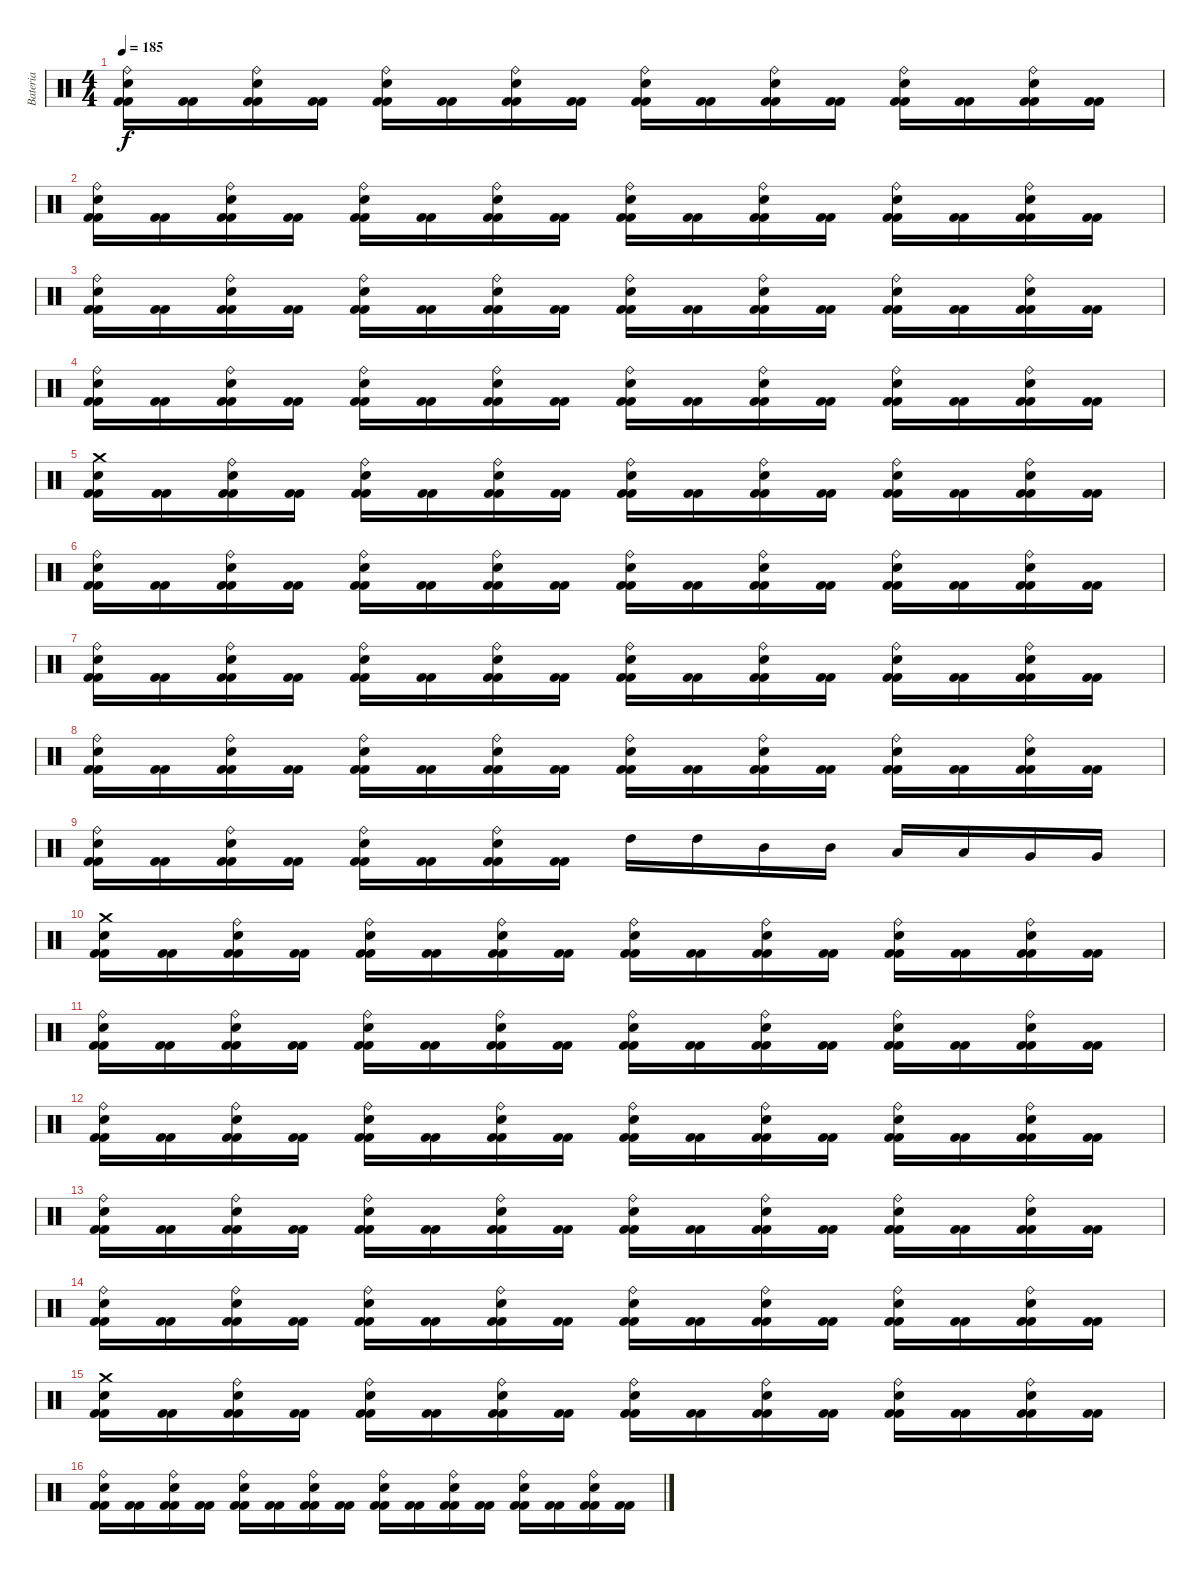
\track ("Bateria" "Bateria") {instrument percussion}
\staff {score}
\articulation defaults
\ts (4 4)
\tempo 185
\clef neutral
\ks c
("Kick (hit) 2" "Kick (hit) 2" "Electric Snare (hit)" "Ride (bell)").16{dy f} ("Kick (hit) 2" "Kick (hit) 2").16 ("Kick (hit) 2" "Kick (hit) 2" "Ride (bell)" "Electric Snare (hit)").16 ("Kick (hit) 2" "Kick (hit) 2").16 ("Kick (hit) 2" "Kick (hit) 2" "Electric Snare (hit)" "Ride (bell)").16 ("Kick (hit) 2" "Kick (hit) 2").16 ("Kick (hit) 2" "Kick (hit) 2" "Ride (bell)" "Electric Snare (hit)").16 ("Kick (hit) 2" "Kick (hit) 2").16 ("Kick (hit) 2" "Kick (hit) 2" "Electric Snare (hit)" "Ride (bell)").16 ("Kick (hit) 2" "Kick (hit) 2").16 ("Kick (hit) 2" "Kick (hit) 2" "Ride (bell)" "Electric Snare (hit)").16 ("Kick (hit) 2" "Kick (hit) 2").16 ("Kick (hit) 2" "Kick (hit) 2" "Electric Snare (hit)" "Ride (bell)").16 ("Kick (hit) 2" "Kick (hit) 2").16 ("Kick (hit) 2" "Kick (hit) 2" "Ride (bell)" "Electric Snare (hit)").16 ("Kick (hit) 2" "Kick (hit) 2").16 |
("Kick (hit) 2" "Kick (hit) 2" "Electric Snare (hit)" "Ride (bell)").16 ("Kick (hit) 2" "Kick (hit) 2").16 ("Kick (hit) 2" "Kick (hit) 2" "Ride (bell)" "Electric Snare (hit)").16 ("Kick (hit) 2" "Kick (hit) 2").16 ("Kick (hit) 2" "Kick (hit) 2" "Electric Snare (hit)" "Ride (bell)").16 ("Kick (hit) 2" "Kick (hit) 2").16 ("Kick (hit) 2" "Kick (hit) 2" "Ride (bell)" "Electric Snare (hit)").16 ("Kick (hit) 2" "Kick (hit) 2").16 ("Kick (hit) 2" "Kick (hit) 2" "Electric Snare (hit)" "Ride (bell)").16 ("Kick (hit) 2" "Kick (hit) 2").16 ("Kick (hit) 2" "Kick (hit) 2" "Ride (bell)" "Electric Snare (hit)").16 ("Kick (hit) 2" "Kick (hit) 2").16 ("Kick (hit) 2" "Kick (hit) 2" "Electric Snare (hit)" "Ride (bell)").16 ("Kick (hit) 2" "Kick (hit) 2").16 ("Kick (hit) 2" "Kick (hit) 2" "Ride (bell)" "Electric Snare (hit)").16 ("Kick (hit) 2" "Kick (hit) 2").16 |
("Kick (hit) 2" "Kick (hit) 2" "Electric Snare (hit)" "Ride (bell)").16 ("Kick (hit) 2" "Kick (hit) 2").16 ("Kick (hit) 2" "Kick (hit) 2" "Ride (bell)" "Electric Snare (hit)").16 ("Kick (hit) 2" "Kick (hit) 2").16 ("Kick (hit) 2" "Kick (hit) 2" "Electric Snare (hit)" "Ride (bell)").16 ("Kick (hit) 2" "Kick (hit) 2").16 ("Kick (hit) 2" "Kick (hit) 2" "Ride (bell)" "Electric Snare (hit)").16 ("Kick (hit) 2" "Kick (hit) 2").16 ("Kick (hit) 2" "Kick (hit) 2" "Electric Snare (hit)" "Ride (bell)").16 ("Kick (hit) 2" "Kick (hit) 2").16 ("Kick (hit) 2" "Kick (hit) 2" "Ride (bell)" "Electric Snare (hit)").16 ("Kick (hit) 2" "Kick (hit) 2").16 ("Kick (hit) 2" "Kick (hit) 2" "Electric Snare (hit)" "Ride (bell)").16 ("Kick (hit) 2" "Kick (hit) 2").16 ("Kick (hit) 2" "Kick (hit) 2" "Ride (bell)" "Electric Snare (hit)").16 ("Kick (hit) 2" "Kick (hit) 2").16 |
("Kick (hit) 2" "Kick (hit) 2" "Electric Snare (hit)" "Ride (bell)").16 ("Kick (hit) 2" "Kick (hit) 2").16 ("Kick (hit) 2" "Kick (hit) 2" "Ride (bell)" "Electric Snare (hit)").16 ("Kick (hit) 2" "Kick (hit) 2").16 ("Kick (hit) 2" "Kick (hit) 2" "Electric Snare (hit)" "Ride (bell)").16 ("Kick (hit) 2" "Kick (hit) 2").16 ("Kick (hit) 2" "Kick (hit) 2" "Ride (bell)" "Electric Snare (hit)").16 ("Kick (hit) 2" "Kick (hit) 2").16 ("Kick (hit) 2" "Kick (hit) 2" "Electric Snare (hit)" "Ride (bell)").16 ("Kick (hit) 2" "Kick (hit) 2").16 ("Kick (hit) 2" "Kick (hit) 2" "Ride (bell)" "Electric Snare (hit)").16 ("Kick (hit) 2" "Kick (hit) 2").16 ("Kick (hit) 2" "Kick (hit) 2" "Electric Snare (hit)" "Ride (bell)").16 ("Kick (hit) 2" "Kick (hit) 2").16 ("Kick (hit) 2" "Kick (hit) 2" "Ride (bell)" "Electric Snare (hit)").16 ("Kick (hit) 2" "Kick (hit) 2").16 |
("Kick (hit) 2" "Kick (hit) 2" "Electric Snare (hit)" "Crash medium (hit)").16 ("Kick (hit) 2" "Kick (hit) 2").16 ("Kick (hit) 2" "Kick (hit) 2" "Ride (bell)" "Electric Snare (hit)").16 ("Kick (hit) 2" "Kick (hit) 2").16 ("Kick (hit) 2" "Kick (hit) 2" "Electric Snare (hit)" "Ride (bell)").16 ("Kick (hit) 2" "Kick (hit) 2").16 ("Kick (hit) 2" "Kick (hit) 2" "Ride (bell)" "Electric Snare (hit)").16 ("Kick (hit) 2" "Kick (hit) 2").16 ("Kick (hit) 2" "Kick (hit) 2" "Electric Snare (hit)" "Ride (bell)").16 ("Kick (hit) 2" "Kick (hit) 2").16 ("Kick (hit) 2" "Kick (hit) 2" "Ride (bell)" "Electric Snare (hit)").16 ("Kick (hit) 2" "Kick (hit) 2").16 ("Kick (hit) 2" "Kick (hit) 2" "Electric Snare (hit)" "Ride (bell)").16 ("Kick (hit) 2" "Kick (hit) 2").16 ("Kick (hit) 2" "Kick (hit) 2" "Ride (bell)" "Electric Snare (hit)").16 ("Kick (hit) 2" "Kick (hit) 2").16 |
("Kick (hit) 2" "Kick (hit) 2" "Electric Snare (hit)" "Ride (bell)").16 ("Kick (hit) 2" "Kick (hit) 2").16 ("Kick (hit) 2" "Kick (hit) 2" "Ride (bell)" "Electric Snare (hit)").16 ("Kick (hit) 2" "Kick (hit) 2").16 ("Kick (hit) 2" "Kick (hit) 2" "Electric Snare (hit)" "Ride (bell)").16 ("Kick (hit) 2" "Kick (hit) 2").16 ("Kick (hit) 2" "Kick (hit) 2" "Ride (bell)" "Electric Snare (hit)").16 ("Kick (hit) 2" "Kick (hit) 2").16 ("Kick (hit) 2" "Kick (hit) 2" "Electric Snare (hit)" "Ride (bell)").16 ("Kick (hit) 2" "Kick (hit) 2").16 ("Kick (hit) 2" "Kick (hit) 2" "Ride (bell)" "Electric Snare (hit)").16 ("Kick (hit) 2" "Kick (hit) 2").16 ("Kick (hit) 2" "Kick (hit) 2" "Electric Snare (hit)" "Ride (bell)").16 ("Kick (hit) 2" "Kick (hit) 2").16 ("Kick (hit) 2" "Kick (hit) 2" "Ride (bell)" "Electric Snare (hit)").16 ("Kick (hit) 2" "Kick (hit) 2").16 |
("Kick (hit) 2" "Kick (hit) 2" "Electric Snare (hit)" "Ride (bell)").16 ("Kick (hit) 2" "Kick (hit) 2").16 ("Kick (hit) 2" "Kick (hit) 2" "Ride (bell)" "Electric Snare (hit)").16 ("Kick (hit) 2" "Kick (hit) 2").16 ("Kick (hit) 2" "Kick (hit) 2" "Electric Snare (hit)" "Ride (bell)").16 ("Kick (hit) 2" "Kick (hit) 2").16 ("Kick (hit) 2" "Kick (hit) 2" "Ride (bell)" "Electric Snare (hit)").16 ("Kick (hit) 2" "Kick (hit) 2").16 ("Kick (hit) 2" "Kick (hit) 2" "Electric Snare (hit)" "Ride (bell)").16 ("Kick (hit) 2" "Kick (hit) 2").16 ("Kick (hit) 2" "Kick (hit) 2" "Ride (bell)" "Electric Snare (hit)").16 ("Kick (hit) 2" "Kick (hit) 2").16 ("Kick (hit) 2" "Kick (hit) 2" "Electric Snare (hit)" "Ride (bell)").16 ("Kick (hit) 2" "Kick (hit) 2").16 ("Kick (hit) 2" "Kick (hit) 2" "Ride (bell)" "Electric Snare (hit)").16 ("Kick (hit) 2" "Kick (hit) 2").16 |
("Kick (hit) 2" "Kick (hit) 2" "Electric Snare (hit)" "Ride (bell)").16 ("Kick (hit) 2" "Kick (hit) 2").16 ("Kick (hit) 2" "Kick (hit) 2" "Ride (bell)" "Electric Snare (hit)").16 ("Kick (hit) 2" "Kick (hit) 2").16 ("Kick (hit) 2" "Kick (hit) 2" "Electric Snare (hit)" "Ride (bell)").16 ("Kick (hit) 2" "Kick (hit) 2").16 ("Kick (hit) 2" "Kick (hit) 2" "Ride (bell)" "Electric Snare (hit)").16 ("Kick (hit) 2" "Kick (hit) 2").16 ("Kick (hit) 2" "Kick (hit) 2" "Electric Snare (hit)" "Ride (bell)").16 ("Kick (hit) 2" "Kick (hit) 2").16 ("Kick (hit) 2" "Kick (hit) 2" "Ride (bell)" "Electric Snare (hit)").16 ("Kick (hit) 2" "Kick (hit) 2").16 ("Kick (hit) 2" "Kick (hit) 2" "Electric Snare (hit)" "Ride (bell)").16 ("Kick (hit) 2" "Kick (hit) 2").16 ("Kick (hit) 2" "Kick (hit) 2" "Ride (bell)" "Electric Snare (hit)").16 ("Kick (hit) 2" "Kick (hit) 2").16 |
("Kick (hit) 2" "Kick (hit) 2" "Electric Snare (hit)" "Ride (bell)").16 ("Kick (hit) 2" "Kick (hit) 2").16 ("Kick (hit) 2" "Kick (hit) 2" "Ride (bell)" "Electric Snare (hit)").16 ("Kick (hit) 2" "Kick (hit) 2").16 ("Kick (hit) 2" "Kick (hit) 2" "Electric Snare (hit)" "Ride (bell)").16 ("Kick (hit) 2" "Kick (hit) 2").16 ("Kick (hit) 2" "Kick (hit) 2" "Ride (bell)" "Electric Snare (hit)").16 ("Kick (hit) 2" "Kick (hit) 2").16 "High Tom (hit)".16 "High Tom (hit)".16 "Mid Tom (hit)".16 "Mid Tom (hit)".16 "Low Tom (hit)".16 "Low Tom (hit)".16 "Very Low Tom (hit)".16 "Very Low Tom (hit)".16 |
("Kick (hit) 2" "Kick (hit) 2" "Electric Snare (hit)" "Crash medium (hit)").16 ("Kick (hit) 2" "Kick (hit) 2").16 ("Kick (hit) 2" "Kick (hit) 2" "Ride (bell)" "Electric Snare (hit)").16 ("Kick (hit) 2" "Kick (hit) 2").16 ("Kick (hit) 2" "Kick (hit) 2" "Electric Snare (hit)" "Ride (bell)").16 ("Kick (hit) 2" "Kick (hit) 2").16 ("Kick (hit) 2" "Kick (hit) 2" "Ride (bell)" "Electric Snare (hit)").16 ("Kick (hit) 2" "Kick (hit) 2").16 ("Kick (hit) 2" "Kick (hit) 2" "Electric Snare (hit)" "Ride (bell)").16 ("Kick (hit) 2" "Kick (hit) 2").16 ("Kick (hit) 2" "Kick (hit) 2" "Ride (bell)" "Electric Snare (hit)").16 ("Kick (hit) 2" "Kick (hit) 2").16 ("Kick (hit) 2" "Kick (hit) 2" "Electric Snare (hit)" "Ride (bell)").16 ("Kick (hit) 2" "Kick (hit) 2").16 ("Kick (hit) 2" "Kick (hit) 2" "Ride (bell)" "Electric Snare (hit)").16 ("Kick (hit) 2" "Kick (hit) 2").16 |
("Kick (hit) 2" "Kick (hit) 2" "Electric Snare (hit)" "Ride (bell)").16 ("Kick (hit) 2" "Kick (hit) 2").16 ("Kick (hit) 2" "Kick (hit) 2" "Ride (bell)" "Electric Snare (hit)").16 ("Kick (hit) 2" "Kick (hit) 2").16 ("Kick (hit) 2" "Kick (hit) 2" "Electric Snare (hit)" "Ride (bell)").16 ("Kick (hit) 2" "Kick (hit) 2").16 ("Kick (hit) 2" "Kick (hit) 2" "Ride (bell)" "Electric Snare (hit)").16 ("Kick (hit) 2" "Kick (hit) 2").16 ("Kick (hit) 2" "Kick (hit) 2" "Electric Snare (hit)" "Ride (bell)").16 ("Kick (hit) 2" "Kick (hit) 2").16 ("Kick (hit) 2" "Kick (hit) 2" "Ride (bell)" "Electric Snare (hit)").16 ("Kick (hit) 2" "Kick (hit) 2").16 ("Kick (hit) 2" "Kick (hit) 2" "Electric Snare (hit)" "Ride (bell)").16 ("Kick (hit) 2" "Kick (hit) 2").16 ("Kick (hit) 2" "Kick (hit) 2" "Ride (bell)" "Electric Snare (hit)").16 ("Kick (hit) 2" "Kick (hit) 2").16 |
("Kick (hit) 2" "Kick (hit) 2" "Electric Snare (hit)" "Ride (bell)").16 ("Kick (hit) 2" "Kick (hit) 2").16 ("Kick (hit) 2" "Kick (hit) 2" "Ride (bell)" "Electric Snare (hit)").16 ("Kick (hit) 2" "Kick (hit) 2").16 ("Kick (hit) 2" "Kick (hit) 2" "Electric Snare (hit)" "Ride (bell)").16 ("Kick (hit) 2" "Kick (hit) 2").16 ("Kick (hit) 2" "Kick (hit) 2" "Ride (bell)" "Electric Snare (hit)").16 ("Kick (hit) 2" "Kick (hit) 2").16 ("Kick (hit) 2" "Kick (hit) 2" "Electric Snare (hit)" "Ride (bell)").16 ("Kick (hit) 2" "Kick (hit) 2").16 ("Kick (hit) 2" "Kick (hit) 2" "Ride (bell)" "Electric Snare (hit)").16 ("Kick (hit) 2" "Kick (hit) 2").16 ("Kick (hit) 2" "Kick (hit) 2" "Electric Snare (hit)" "Ride (bell)").16 ("Kick (hit) 2" "Kick (hit) 2").16 ("Kick (hit) 2" "Kick (hit) 2" "Ride (bell)" "Electric Snare (hit)").16 ("Kick (hit) 2" "Kick (hit) 2").16 |
("Kick (hit) 2" "Kick (hit) 2" "Electric Snare (hit)" "Ride (bell)").16 ("Kick (hit) 2" "Kick (hit) 2").16 ("Kick (hit) 2" "Kick (hit) 2" "Ride (bell)" "Electric Snare (hit)").16 ("Kick (hit) 2" "Kick (hit) 2").16 ("Kick (hit) 2" "Kick (hit) 2" "Electric Snare (hit)" "Ride (bell)").16 ("Kick (hit) 2" "Kick (hit) 2").16 ("Kick (hit) 2" "Kick (hit) 2" "Ride (bell)" "Electric Snare (hit)").16 ("Kick (hit) 2" "Kick (hit) 2").16 ("Kick (hit) 2" "Kick (hit) 2" "Electric Snare (hit)" "Ride (bell)").16 ("Kick (hit) 2" "Kick (hit) 2").16 ("Kick (hit) 2" "Kick (hit) 2" "Ride (bell)" "Electric Snare (hit)").16 ("Kick (hit) 2" "Kick (hit) 2").16 ("Kick (hit) 2" "Kick (hit) 2" "Electric Snare (hit)" "Ride (bell)").16 ("Kick (hit) 2" "Kick (hit) 2").16 ("Kick (hit) 2" "Kick (hit) 2" "Ride (bell)" "Electric Snare (hit)").16 ("Kick (hit) 2" "Kick (hit) 2").16 |
("Kick (hit) 2" "Kick (hit) 2" "Electric Snare (hit)" "Ride (bell)").16 ("Kick (hit) 2" "Kick (hit) 2").16 ("Kick (hit) 2" "Kick (hit) 2" "Ride (bell)" "Electric Snare (hit)").16 ("Kick (hit) 2" "Kick (hit) 2").16 ("Kick (hit) 2" "Kick (hit) 2" "Electric Snare (hit)" "Ride (bell)").16 ("Kick (hit) 2" "Kick (hit) 2").16 ("Kick (hit) 2" "Kick (hit) 2" "Ride (bell)" "Electric Snare (hit)").16 ("Kick (hit) 2" "Kick (hit) 2").16 ("Kick (hit) 2" "Kick (hit) 2" "Electric Snare (hit)" "Ride (bell)").16 ("Kick (hit) 2" "Kick (hit) 2").16 ("Kick (hit) 2" "Kick (hit) 2" "Ride (bell)" "Electric Snare (hit)").16 ("Kick (hit) 2" "Kick (hit) 2").16 ("Kick (hit) 2" "Kick (hit) 2" "Electric Snare (hit)" "Ride (bell)").16 ("Kick (hit) 2" "Kick (hit) 2").16 ("Kick (hit) 2" "Kick (hit) 2" "Ride (bell)" "Electric Snare (hit)").16 ("Kick (hit) 2" "Kick (hit) 2").16 |
("Kick (hit) 2" "Kick (hit) 2" "Electric Snare (hit)" "Crash medium (hit)").16 ("Kick (hit) 2" "Kick (hit) 2").16 ("Kick (hit) 2" "Kick (hit) 2" "Ride (bell)" "Electric Snare (hit)").16 ("Kick (hit) 2" "Kick (hit) 2").16 ("Kick (hit) 2" "Kick (hit) 2" "Electric Snare (hit)" "Ride (bell)").16 ("Kick (hit) 2" "Kick (hit) 2").16 ("Kick (hit) 2" "Kick (hit) 2" "Ride (bell)" "Electric Snare (hit)").16 ("Kick (hit) 2" "Kick (hit) 2").16 ("Kick (hit) 2" "Kick (hit) 2" "Electric Snare (hit)" "Ride (bell)").16 ("Kick (hit) 2" "Kick (hit) 2").16 ("Kick (hit) 2" "Kick (hit) 2" "Ride (bell)" "Electric Snare (hit)").16 ("Kick (hit) 2" "Kick (hit) 2").16 ("Kick (hit) 2" "Kick (hit) 2" "Electric Snare (hit)" "Ride (bell)").16 ("Kick (hit) 2" "Kick (hit) 2").16 ("Kick (hit) 2" "Kick (hit) 2" "Ride (bell)" "Electric Snare (hit)").16 ("Kick (hit) 2" "Kick (hit) 2").16 |
("Kick (hit) 2" "Kick (hit) 2" "Electric Snare (hit)" "Ride (bell)").16 ("Kick (hit) 2" "Kick (hit) 2").16 ("Kick (hit) 2" "Kick (hit) 2" "Ride (bell)" "Electric Snare (hit)").16 ("Kick (hit) 2" "Kick (hit) 2").16 ("Kick (hit) 2" "Kick (hit) 2" "Electric Snare (hit)" "Ride (bell)").16 ("Kick (hit) 2" "Kick (hit) 2").16 ("Kick (hit) 2" "Kick (hit) 2" "Ride (bell)" "Electric Snare (hit)").16 ("Kick (hit) 2" "Kick (hit) 2").16 ("Kick (hit) 2" "Kick (hit) 2" "Electric Snare (hit)" "Ride (bell)").16 ("Kick (hit) 2" "Kick (hit) 2").16 ("Kick (hit) 2" "Kick (hit) 2" "Ride (bell)" "Electric Snare (hit)").16 ("Kick (hit) 2" "Kick (hit) 2").16 ("Kick (hit) 2" "Kick (hit) 2" "Electric Snare (hit)" "Ride (bell)").16 ("Kick (hit) 2" "Kick (hit) 2").16 ("Kick (hit) 2" "Kick (hit) 2" "Ride (bell)" "Electric Snare (hit)").16 ("Kick (hit) 2" "Kick (hit) 2").16
